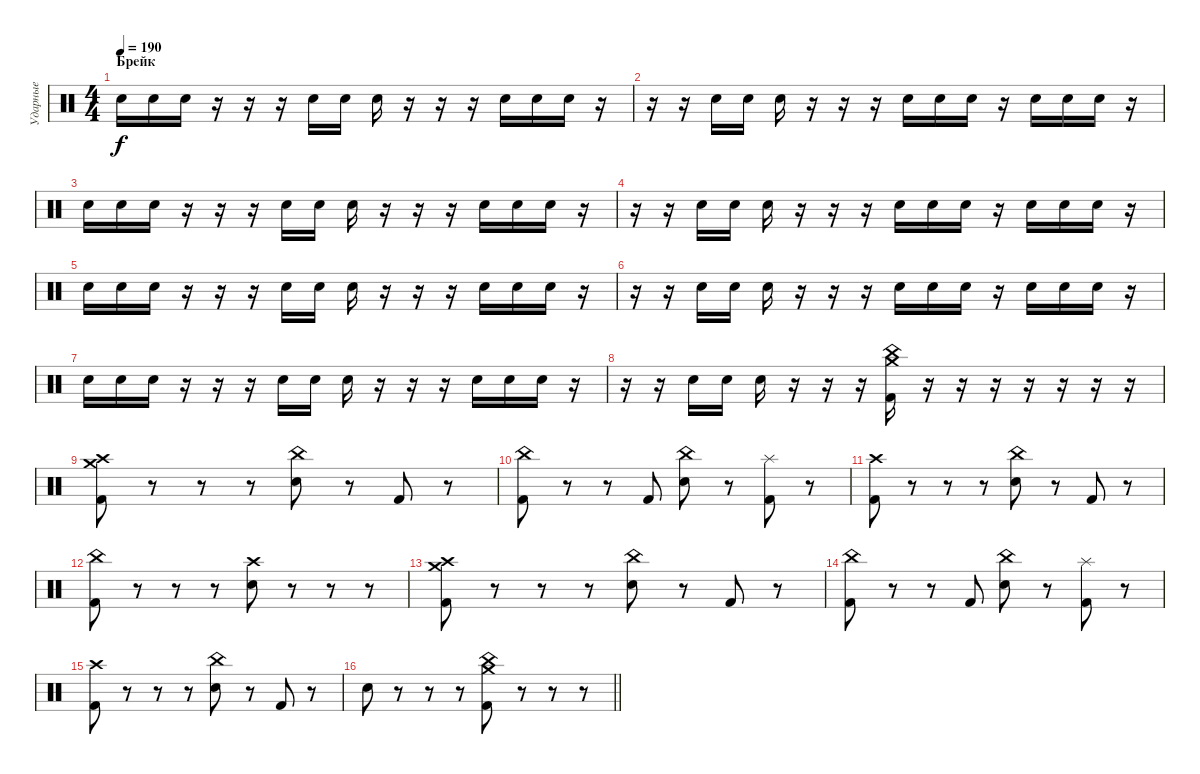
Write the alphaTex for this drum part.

\track ("Ударные" "Ударные") {instrument percussion}
\staff {score}
\articulation defaults
\ts (4 4)
\section ("" "Брейк")
\tempo 190
\clef neutral
\ks c "Electric Snare (hit)".16{dy f} "Electric Snare (hit)".16 "Electric Snare (hit)".16
r.16 r.16 r.16 "Electric Snare (hit)".16 "Electric Snare (hit)".16 "Electric Snare (hit)".16 r.16 r.16 r.16 "Electric Snare (hit)".16 "Electric Snare (hit)".16 "Electric Snare (hit)".16 r.16 |
r.16 r.16 "Electric Snare (hit)".16 "Electric Snare (hit)".16 "Electric Snare (hit)".16 r.16 r.16 r.16 "Electric Snare (hit)".16 "Electric Snare (hit)".16 "Electric Snare (hit)".16 r.16 "Electric Snare (hit)".16 "Electric Snare (hit)".16 "Electric Snare (hit)".16 r.16 |
"Electric Snare (hit)".16 "Electric Snare (hit)".16 "Electric Snare (hit)".16 r.16 r.16 r.16 "Electric Snare (hit)".16 "Electric Snare (hit)".16 "Electric Snare (hit)".16 r.16 r.16 r.16 "Electric Snare (hit)".16 "Electric Snare (hit)".16 "Electric Snare (hit)".16 r.16 |
r.16 r.16 "Electric Snare (hit)".16 "Electric Snare (hit)".16 "Electric Snare (hit)".16 r.16 r.16 r.16 "Electric Snare (hit)".16 "Electric Snare (hit)".16 "Electric Snare (hit)".16 r.16 "Electric Snare (hit)".16 "Electric Snare (hit)".16 "Electric Snare (hit)".16 r.16 |
"Electric Snare (hit)".16 "Electric Snare (hit)".16 "Electric Snare (hit)".16 r.16 r.16 r.16 "Electric Snare (hit)".16 "Electric Snare (hit)".16 "Electric Snare (hit)".16 r.16 r.16 r.16 "Electric Snare (hit)".16 "Electric Snare (hit)".16 "Electric Snare (hit)".16 r.16 |
r.16 r.16 "Electric Snare (hit)".16 "Electric Snare (hit)".16 "Electric Snare (hit)".16 r.16 r.16 r.16 "Electric Snare (hit)".16 "Electric Snare (hit)".16 "Electric Snare (hit)".16 r.16 "Electric Snare (hit)".16 "Electric Snare (hit)".16 "Electric Snare (hit)".16 r.16 |
"Electric Snare (hit)".16 "Electric Snare (hit)".16 "Electric Snare (hit)".16 r.16 r.16 r.16 "Electric Snare (hit)".16 "Electric Snare (hit)".16 "Electric Snare (hit)".16 r.16 r.16 r.16 "Electric Snare (hit)".16 "Electric Snare (hit)".16 "Electric Snare (hit)".16 r.16 |
r.16 r.16 "Electric Snare (hit)".16 "Electric Snare (hit)".16 "Electric Snare (hit)".16 r.16 r.16 r.16 ("Kick (hit) 2" "Crash medium (hit)" "China (hit)").16 r.16 r.16 r.16 r.16 r.16 r.16 r.16 |
("Kick (hit) 2" "Crash medium (hit)" "Crash high (hit)").8 r.8 r.8 r.8 ("Electric Snare (hit)" "China (hit)").8 r.8 "Kick (hit) 2".8 r.8 |
("Kick (hit) 2" "China (hit)").8 r.8 r.8 "Kick (hit) 2".8 ("Electric Snare (hit)" "China (hit)").8 r.8 ("Kick (hit) 2" "Splash (hit)").8 r.8 |
("Kick (hit) 2" "Crash high (hit)").8 r.8 r.8 r.8 ("Electric Snare (hit)" "China (hit)").8 r.8 "Kick (hit) 2".8 r.8 |
("Kick (hit) 2" "China (hit)").8 r.8 r.8 r.8 ("Electric Snare (hit)" "Crash high (hit)").8 r.8 r.8 r.8 |
("Kick (hit) 2" "Crash medium (hit)" "Crash high (hit)").8 r.8 r.8 r.8 ("Electric Snare (hit)" "China (hit)").8 r.8 "Kick (hit) 2".8 r.8 |
("Kick (hit) 2" "China (hit)").8 r.8 r.8 "Kick (hit) 2".8 ("Electric Snare (hit)" "China (hit)").8 r.8 ("Kick (hit) 2" "Splash (hit)").8 r.8 |
("Kick (hit) 2" "Crash high (hit)").8 r.8 r.8 r.8 ("Electric Snare (hit)" "China (hit)").8 r.8 "Kick (hit) 2".8 r.8 |
\barLineRight lightlight "Electric Snare (hit)".8
r.8 r.8 r.8 ("Kick (hit) 2" "Crash medium (hit)" "China (hit)").8 r.8 r.8 r.8
